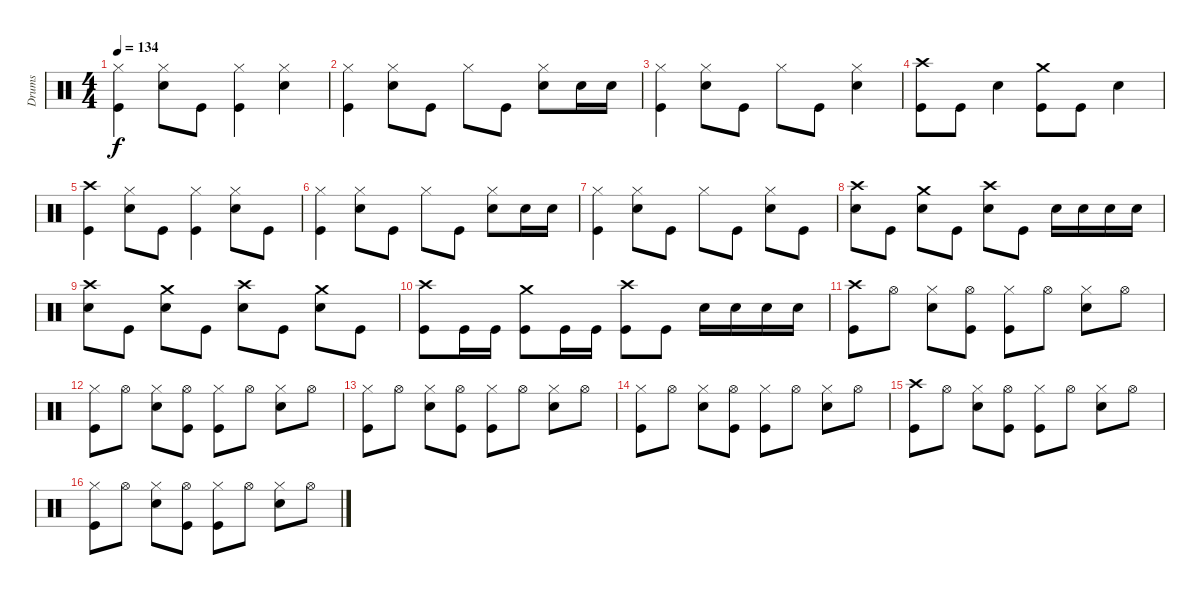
\track ("Drums" "Drums") {instrument percussion}
\staff {score}
\articulation defaults
\ts (4 4)
\tempo 134
\clef neutral
\ks c
("Hi-Hat (closed)" "Kick (hit)").4{dy f} ("Hi-Hat (closed)" "Snare (hit) 2").8 "Kick (hit)".8 ("Hi-Hat (closed)" "Kick (hit)").4 ("Hi-Hat (closed)" "Snare (hit) 2").4 |
("Hi-Hat (closed)" "Kick (hit)").4 ("Hi-Hat (closed)" "Snare (hit) 2").8 "Kick (hit)".8 "Hi-Hat (closed)".8 "Kick (hit)".8 ("Hi-Hat (closed)" "Snare (hit) 2").8 "Snare (hit) 2".16 "Snare (hit) 2".16 |
("Hi-Hat (closed)" "Kick (hit)").4 ("Hi-Hat (closed)" "Snare (hit) 2").8 "Kick (hit)".8 "Hi-Hat (closed)".8 "Kick (hit)".8 ("Hi-Hat (closed)" "Snare (hit) 2").4 |
("Crash high (hit)" "Kick (hit)").8 "Kick (hit)".8 "Snare (hit) 2".4 ("Crash medium (hit)" "Kick (hit)").8 "Kick (hit)".8 "Snare (hit) 2".4 |
("Crash high (hit)" "Kick (hit)").4 ("Hi-Hat (closed)" "Snare (hit) 2").8 "Kick (hit)".8 ("Hi-Hat (closed)" "Kick (hit)").4 ("Hi-Hat (closed)" "Snare (hit) 2").8 "Kick (hit)".8 |
("Hi-Hat (closed)" "Kick (hit)").4 ("Hi-Hat (closed)" "Snare (hit) 2").8 "Kick (hit)".8 "Hi-Hat (closed)".8 "Kick (hit)".8 ("Hi-Hat (closed)" "Snare (hit) 2").8 "Snare (hit) 2".16 "Snare (hit) 2".16 |
("Hi-Hat (closed)" "Kick (hit)").4 ("Hi-Hat (closed)" "Snare (hit) 2").8 "Kick (hit)".8 "Hi-Hat (closed)".8 "Kick (hit)".8 ("Hi-Hat (closed)" "Snare (hit) 2").8 "Kick (hit)".8 |
("Crash high (hit)" "Snare (hit) 2").8 "Kick (hit)".8 ("Crash medium (hit)" "Snare (hit) 2").8 "Kick (hit)".8 ("Crash high (hit)" "Snare (hit) 2").8 "Kick (hit)".8 "Snare (hit) 2".16 "Snare (hit) 2".16 "Snare (hit) 2".16 "Snare (hit) 2".16 |
("Crash high (hit)" "Snare (hit) 2").8 "Kick (hit)".8 ("Crash medium (hit)" "Snare (hit) 2").8 "Kick (hit)".8 ("Crash high (hit)" "Snare (hit) 2").8 "Kick (hit)".8 ("Crash medium (hit)" "Snare (hit) 2").8 "Kick (hit)".8 |
("Crash high (hit)" "Kick (hit)").8 "Kick (hit)".16 "Kick (hit)".16 ("Crash medium (hit)" "Kick (hit)").8 "Kick (hit)".16 "Kick (hit)".16 ("Crash high (hit)" "Kick (hit)").8 "Kick (hit)".8 "Snare (hit) 2".16 "Snare (hit) 2".16 "Snare (hit) 2".16 "Snare (hit) 2".16 |
("Crash high (hit)" "Kick (hit)").8 "Hi-Hat (open)".8 ("Hi-Hat (closed)" "Snare (hit) 2").8 ("Hi-Hat (open)" "Kick (hit)").8 ("Hi-Hat (closed)" "Kick (hit)").8 "Hi-Hat (open)".8 ("Hi-Hat (closed)" "Snare (hit) 2").8 "Hi-Hat (open)".8 |
("Hi-Hat (closed)" "Kick (hit)").8 "Hi-Hat (open)".8 ("Hi-Hat (closed)" "Snare (hit) 2").8 ("Hi-Hat (open)" "Kick (hit)").8 ("Hi-Hat (closed)" "Kick (hit)").8 "Hi-Hat (open)".8 ("Hi-Hat (closed)" "Snare (hit) 2").8 "Hi-Hat (open)".8 |
("Hi-Hat (closed)" "Kick (hit)").8 "Hi-Hat (open)".8 ("Hi-Hat (closed)" "Snare (hit) 2").8 ("Hi-Hat (open)" "Kick (hit)").8 ("Hi-Hat (closed)" "Kick (hit)").8 "Hi-Hat (open)".8 ("Hi-Hat (closed)" "Snare (hit) 2").8 "Hi-Hat (open)".8 |
("Hi-Hat (closed)" "Kick (hit)").8 "Hi-Hat (open)".8 ("Hi-Hat (closed)" "Snare (hit) 2").8 ("Hi-Hat (open)" "Kick (hit)").8 ("Hi-Hat (closed)" "Kick (hit)").8 "Hi-Hat (open)".8 ("Hi-Hat (closed)" "Snare (hit) 2").8 "Hi-Hat (open)".8 |
("Crash high (hit)" "Kick (hit)").8 "Hi-Hat (open)".8 ("Hi-Hat (closed)" "Snare (hit) 2").8 ("Hi-Hat (open)" "Kick (hit)").8 ("Hi-Hat (closed)" "Kick (hit)").8 "Hi-Hat (open)".8 ("Hi-Hat (closed)" "Snare (hit) 2").8 "Hi-Hat (open)".8 |
("Hi-Hat (closed)" "Kick (hit)").8 "Hi-Hat (open)".8 ("Hi-Hat (closed)" "Snare (hit) 2").8 ("Hi-Hat (open)" "Kick (hit)").8 ("Hi-Hat (closed)" "Kick (hit)").8 "Hi-Hat (open)".8 ("Hi-Hat (closed)" "Snare (hit) 2").8 "Hi-Hat (open)".8
